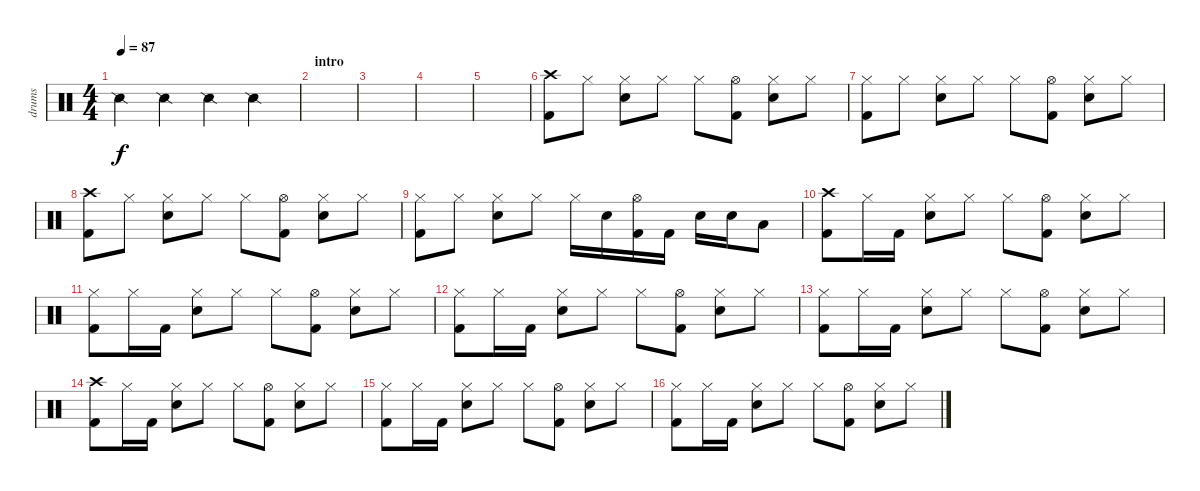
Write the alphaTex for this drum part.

\track ("drums" "drums") {instrument percussion}
\staff {score}
\articulation defaults
\ts (4 4)
\tempo 87
\clef neutral
\ks c "Snare (side stick) 2".4{dy f} "Snare (side stick) 2".4 "Snare (side stick) 2".4 "Snare (side stick) 2".4
|
\section ("" "intro")
|
|
|
|
("Crash high (hit)" "Kick (hit) 2").8 "Hi-Hat (closed)".8 ("Hi-Hat (closed)" "Electric Snare (hit)").8 "Hi-Hat (closed)".8 "Hi-Hat (closed)".8 ("Hi-Hat (open)" "Kick (hit) 2").8 ("Hi-Hat (closed)" "Electric Snare (hit)").8 "Hi-Hat (closed)".8 |
("Hi-Hat (closed)" "Kick (hit) 2").8 "Hi-Hat (closed)".8 ("Hi-Hat (closed)" "Electric Snare (hit)").8 "Hi-Hat (closed)".8 "Hi-Hat (closed)".8 ("Hi-Hat (open)" "Kick (hit) 2").8 ("Hi-Hat (closed)" "Electric Snare (hit)").8 "Hi-Hat (closed)".8 |
("Crash high (hit)" "Kick (hit) 2").8 "Hi-Hat (closed)".8 ("Hi-Hat (closed)" "Electric Snare (hit)").8 "Hi-Hat (closed)".8 "Hi-Hat (closed)".8 ("Hi-Hat (open)" "Kick (hit) 2").8 ("Hi-Hat (closed)" "Electric Snare (hit)").8 "Hi-Hat (closed)".8 |
("Hi-Hat (closed)" "Kick (hit) 2").8 "Hi-Hat (closed)".8 ("Hi-Hat (closed)" "Electric Snare (hit)").8 "Hi-Hat (closed)".8 "Hi-Hat (closed)".16 "Electric Snare (hit)".16 ("Hi-Hat (open)" "Kick (hit) 2").16 "Kick (hit) 2".16 "Electric Snare (hit)".16 "Electric Snare (hit)".16 "Low Tom (hit)".8 |
("Crash high (hit)" "Kick (hit) 2").8 "Hi-Hat (closed)".16 "Kick (hit) 2".16 ("Hi-Hat (closed)" "Electric Snare (hit)").8 "Hi-Hat (closed)".8 "Hi-Hat (closed)".8 ("Hi-Hat (open)" "Kick (hit) 2").8 ("Hi-Hat (closed)" "Electric Snare (hit)").8 "Hi-Hat (closed)".8 |
("Hi-Hat (closed)" "Kick (hit) 2").8 "Hi-Hat (closed)".16 "Kick (hit) 2".16 ("Hi-Hat (closed)" "Electric Snare (hit)").8 "Hi-Hat (closed)".8 "Hi-Hat (closed)".8 ("Hi-Hat (open)" "Kick (hit) 2").8 ("Hi-Hat (closed)" "Electric Snare (hit)").8 "Hi-Hat (closed)".8 |
("Hi-Hat (closed)" "Kick (hit) 2").8 "Hi-Hat (closed)".16 "Kick (hit) 2".16 ("Hi-Hat (closed)" "Electric Snare (hit)").8 "Hi-Hat (closed)".8 "Hi-Hat (closed)".8 ("Hi-Hat (open)" "Kick (hit) 2").8 ("Hi-Hat (closed)" "Electric Snare (hit)").8 "Hi-Hat (closed)".8 |
("Hi-Hat (closed)" "Kick (hit) 2").8 "Hi-Hat (closed)".16 "Kick (hit) 2".16 ("Hi-Hat (closed)" "Electric Snare (hit)").8 "Hi-Hat (closed)".8 "Hi-Hat (closed)".8 ("Hi-Hat (open)" "Kick (hit) 2").8 ("Hi-Hat (closed)" "Electric Snare (hit)").8 "Hi-Hat (closed)".8 |
("Crash high (hit)" "Kick (hit) 2").8 "Hi-Hat (closed)".16 "Kick (hit) 2".16 ("Hi-Hat (closed)" "Electric Snare (hit)").8 "Hi-Hat (closed)".8 "Hi-Hat (closed)".8 ("Hi-Hat (open)" "Kick (hit) 2").8 ("Hi-Hat (closed)" "Electric Snare (hit)").8 "Hi-Hat (closed)".8 |
("Hi-Hat (closed)" "Kick (hit) 2").8 "Hi-Hat (closed)".16 "Kick (hit) 2".16 ("Hi-Hat (closed)" "Electric Snare (hit)").8 "Hi-Hat (closed)".8 "Hi-Hat (closed)".8 ("Hi-Hat (open)" "Kick (hit) 2").8 ("Hi-Hat (closed)" "Electric Snare (hit)").8 "Hi-Hat (closed)".8 |
("Hi-Hat (closed)" "Kick (hit) 2").8 "Hi-Hat (closed)".16 "Kick (hit) 2".16 ("Hi-Hat (closed)" "Electric Snare (hit)").8 "Hi-Hat (closed)".8 "Hi-Hat (closed)".8 ("Hi-Hat (open)" "Kick (hit) 2").8 ("Hi-Hat (closed)" "Electric Snare (hit)").8 "Hi-Hat (closed)".8
